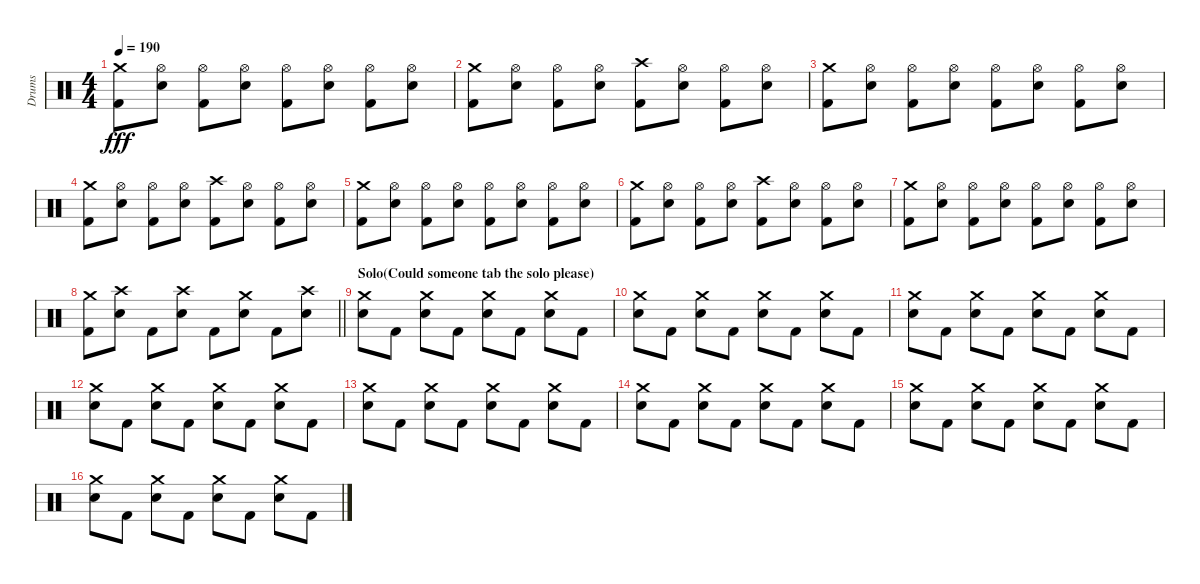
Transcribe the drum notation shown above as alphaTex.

\track ("Drums" "Drums") {instrument percussion}
\staff {score}
\articulation defaults
\ts (4 4)
\tempo 190
\clef neutral
\ks c
("Crash medium (hit)" "Kick (hit) 2").8{dy fff} ("Hi-Hat (open)" "Electric Snare (hit)").8 ("Hi-Hat (open)" "Kick (hit) 2").8 ("Hi-Hat (open)" "Electric Snare (hit)").8 ("Hi-Hat (open)" "Kick (hit) 2").8 ("Hi-Hat (open)" "Electric Snare (hit)").8 ("Hi-Hat (open)" "Kick (hit) 2").8 ("Hi-Hat (open)" "Electric Snare (hit)").8 |
("Crash medium (hit)" "Kick (hit) 2").8 ("Hi-Hat (open)" "Electric Snare (hit)").8 ("Hi-Hat (open)" "Kick (hit) 2").8 ("Hi-Hat (open)" "Electric Snare (hit)").8 ("Crash high (hit)" "Kick (hit) 2").8 ("Hi-Hat (open)" "Electric Snare (hit)").8 ("Hi-Hat (open)" "Kick (hit) 2").8 ("Hi-Hat (open)" "Electric Snare (hit)").8 |
("Crash medium (hit)" "Kick (hit) 2").8 ("Hi-Hat (open)" "Electric Snare (hit)").8 ("Hi-Hat (open)" "Kick (hit) 2").8 ("Hi-Hat (open)" "Electric Snare (hit)").8 ("Hi-Hat (open)" "Kick (hit) 2").8 ("Hi-Hat (open)" "Electric Snare (hit)").8 ("Hi-Hat (open)" "Kick (hit) 2").8 ("Hi-Hat (open)" "Electric Snare (hit)").8 |
("Crash medium (hit)" "Kick (hit) 2").8 ("Hi-Hat (open)" "Electric Snare (hit)").8 ("Hi-Hat (open)" "Kick (hit) 2").8 ("Hi-Hat (open)" "Electric Snare (hit)").8 ("Crash high (hit)" "Kick (hit) 2").8 ("Hi-Hat (open)" "Electric Snare (hit)").8 ("Hi-Hat (open)" "Kick (hit) 2").8 ("Hi-Hat (open)" "Electric Snare (hit)").8 |
("Crash medium (hit)" "Kick (hit) 2").8 ("Hi-Hat (open)" "Electric Snare (hit)").8 ("Hi-Hat (open)" "Kick (hit) 2").8 ("Hi-Hat (open)" "Electric Snare (hit)").8 ("Hi-Hat (open)" "Kick (hit) 2").8 ("Hi-Hat (open)" "Electric Snare (hit)").8 ("Hi-Hat (open)" "Kick (hit) 2").8 ("Hi-Hat (open)" "Electric Snare (hit)").8 |
("Crash medium (hit)" "Kick (hit) 2").8 ("Hi-Hat (open)" "Electric Snare (hit)").8 ("Hi-Hat (open)" "Kick (hit) 2").8 ("Hi-Hat (open)" "Electric Snare (hit)").8 ("Crash high (hit)" "Kick (hit) 2").8 ("Hi-Hat (open)" "Electric Snare (hit)").8 ("Hi-Hat (open)" "Kick (hit) 2").8 ("Hi-Hat (open)" "Electric Snare (hit)").8 |
("Crash medium (hit)" "Kick (hit) 2").8 ("Hi-Hat (open)" "Electric Snare (hit)").8 ("Hi-Hat (open)" "Kick (hit) 2").8 ("Hi-Hat (open)" "Electric Snare (hit)").8 ("Hi-Hat (open)" "Kick (hit) 2").8 ("Hi-Hat (open)" "Electric Snare (hit)").8 ("Hi-Hat (open)" "Kick (hit) 2").8 ("Hi-Hat (open)" "Electric Snare (hit)").8 |
\barLineRight lightlight
("Crash medium (hit)" "Kick (hit) 2").8 ("Crash high (hit)" "Electric Snare (hit)").8 "Kick (hit) 2".8 ("Crash high (hit)" "Electric Snare (hit)").8 "Kick (hit) 2".8 ("Crash medium (hit)" "Electric Snare (hit)").8 "Kick (hit) 2".8 ("Crash high (hit)" "Electric Snare (hit)").8 |
\section ("" "Solo(Could someone tab the solo please)")
("Crash medium (hit)" "Electric Snare (hit)").8 "Kick (hit) 2".8 ("Crash medium (hit)" "Electric Snare (hit)").8 "Kick (hit) 2".8 ("Crash medium (hit)" "Electric Snare (hit)").8 "Kick (hit) 2".8 ("Crash medium (hit)" "Electric Snare (hit)").8 "Kick (hit) 2".8 |
("Crash medium (hit)" "Electric Snare (hit)").8 "Kick (hit) 2".8 ("Crash medium (hit)" "Electric Snare (hit)").8 "Kick (hit) 2".8 ("Crash medium (hit)" "Electric Snare (hit)").8 "Kick (hit) 2".8 ("Crash medium (hit)" "Electric Snare (hit)").8 "Kick (hit) 2".8 |
("Crash medium (hit)" "Electric Snare (hit)").8 "Kick (hit) 2".8 ("Crash medium (hit)" "Electric Snare (hit)").8 "Kick (hit) 2".8 ("Crash medium (hit)" "Electric Snare (hit)").8 "Kick (hit) 2".8 ("Crash medium (hit)" "Electric Snare (hit)").8 "Kick (hit) 2".8 |
("Crash medium (hit)" "Electric Snare (hit)").8 "Kick (hit) 2".8 ("Crash medium (hit)" "Electric Snare (hit)").8 "Kick (hit) 2".8 ("Crash medium (hit)" "Electric Snare (hit)").8 "Kick (hit) 2".8 ("Crash medium (hit)" "Electric Snare (hit)").8 "Kick (hit) 2".8 |
("Crash medium (hit)" "Electric Snare (hit)").8 "Kick (hit) 2".8 ("Crash medium (hit)" "Electric Snare (hit)").8 "Kick (hit) 2".8 ("Crash medium (hit)" "Electric Snare (hit)").8 "Kick (hit) 2".8 ("Crash medium (hit)" "Electric Snare (hit)").8 "Kick (hit) 2".8 |
("Crash medium (hit)" "Electric Snare (hit)").8 "Kick (hit) 2".8 ("Crash medium (hit)" "Electric Snare (hit)").8 "Kick (hit) 2".8 ("Crash medium (hit)" "Electric Snare (hit)").8 "Kick (hit) 2".8 ("Crash medium (hit)" "Electric Snare (hit)").8 "Kick (hit) 2".8 |
("Crash medium (hit)" "Electric Snare (hit)").8 "Kick (hit) 2".8 ("Crash medium (hit)" "Electric Snare (hit)").8 "Kick (hit) 2".8 ("Crash medium (hit)" "Electric Snare (hit)").8 "Kick (hit) 2".8 ("Crash medium (hit)" "Electric Snare (hit)").8 "Kick (hit) 2".8 |
("Crash medium (hit)" "Electric Snare (hit)").8 "Kick (hit) 2".8 ("Crash medium (hit)" "Electric Snare (hit)").8 "Kick (hit) 2".8 ("Crash medium (hit)" "Electric Snare (hit)").8 "Kick (hit) 2".8 ("Crash medium (hit)" "Electric Snare (hit)").8 "Kick (hit) 2".8
